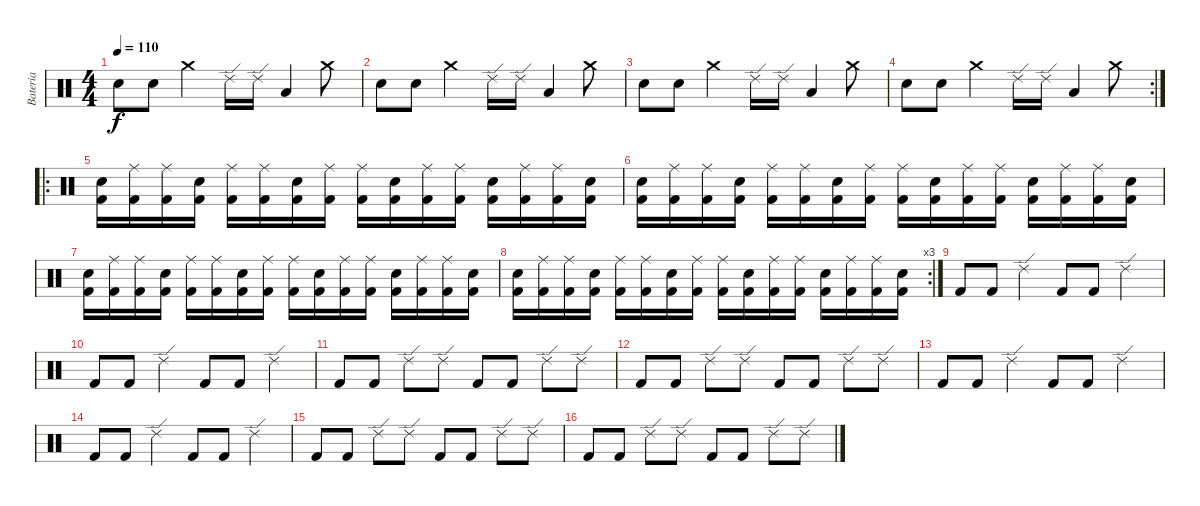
\track ("Bateria" "Bateria") {instrument percussion}
\staff {score}
\articulation defaults
\ts (4 4)
\tempo 110
\clef neutral
\ks c "Electric Snare (hit)".8{dy f} "Electric Snare (hit)".8 "Crash medium (hit)".4 "Ride (edge) 2".16 "Ride (edge) 2".16 "Low Tom (hit)".4 "Crash medium (hit)".8
|
"Electric Snare (hit)".8 "Electric Snare (hit)".8 "Crash medium (hit)".4 "Ride (edge) 2".16 "Ride (edge) 2".16 "Low Tom (hit)".4 "Crash medium (hit)".8 |
"Electric Snare (hit)".8 "Electric Snare (hit)".8 "Crash medium (hit)".4 "Ride (edge) 2".16 "Ride (edge) 2".16 "Low Tom (hit)".4 "Crash medium (hit)".8 |
\rc 2 "Electric Snare (hit)".8 "Electric Snare (hit)".8 "Crash medium (hit)".4 "Ride (edge) 2".16 "Ride (edge) 2".16 "Low Tom (hit)".4 "Crash medium (hit)".8
|
\ro
("Electric Snare (hit)" "Kick (hit) 2").16 ("Ride (middle)" "Kick (hit) 2").16 ("Ride (middle)" "Kick (hit) 2").16 ("Electric Snare (hit)" "Kick (hit) 2").16 ("Ride (middle)" "Kick (hit) 2").16 ("Ride (middle)" "Kick (hit) 2").16 ("Electric Snare (hit)" "Kick (hit) 2").16 ("Ride (middle)" "Kick (hit) 2").16 ("Ride (middle)" "Kick (hit) 2").16 ("Electric Snare (hit)" "Kick (hit) 2").16 ("Ride (middle)" "Kick (hit) 2").16 ("Ride (middle)" "Kick (hit) 2").16 ("Electric Snare (hit)" "Kick (hit) 2").16 ("Ride (middle)" "Kick (hit) 2").16 ("Ride (middle)" "Kick (hit) 2").16 ("Electric Snare (hit)" "Kick (hit) 2").16 |
("Electric Snare (hit)" "Kick (hit) 2").16 ("Ride (middle)" "Kick (hit) 2").16 ("Ride (middle)" "Kick (hit) 2").16 ("Electric Snare (hit)" "Kick (hit) 2").16 ("Ride (middle)" "Kick (hit) 2").16 ("Ride (middle)" "Kick (hit) 2").16 ("Electric Snare (hit)" "Kick (hit) 2").16 ("Ride (middle)" "Kick (hit) 2").16 ("Ride (middle)" "Kick (hit) 2").16 ("Electric Snare (hit)" "Kick (hit) 2").16 ("Ride (middle)" "Kick (hit) 2").16 ("Ride (middle)" "Kick (hit) 2").16 ("Electric Snare (hit)" "Kick (hit) 2").16 ("Ride (middle)" "Kick (hit) 2").16 ("Ride (middle)" "Kick (hit) 2").16 ("Electric Snare (hit)" "Kick (hit) 2").16 |
("Electric Snare (hit)" "Kick (hit) 2").16 ("Ride (middle)" "Kick (hit) 2").16 ("Ride (middle)" "Kick (hit) 2").16 ("Electric Snare (hit)" "Kick (hit) 2").16 ("Ride (middle)" "Kick (hit) 2").16 ("Ride (middle)" "Kick (hit) 2").16 ("Electric Snare (hit)" "Kick (hit) 2").16 ("Ride (middle)" "Kick (hit) 2").16 ("Ride (middle)" "Kick (hit) 2").16 ("Electric Snare (hit)" "Kick (hit) 2").16 ("Ride (middle)" "Kick (hit) 2").16 ("Ride (middle)" "Kick (hit) 2").16 ("Electric Snare (hit)" "Kick (hit) 2").16 ("Ride (middle)" "Kick (hit) 2").16 ("Ride (middle)" "Kick (hit) 2").16 ("Electric Snare (hit)" "Kick (hit) 2").16 |
\rc 3
("Electric Snare (hit)" "Kick (hit) 2").16 ("Ride (middle)" "Kick (hit) 2").16 ("Ride (middle)" "Kick (hit) 2").16 ("Electric Snare (hit)" "Kick (hit) 2").16 ("Ride (middle)" "Kick (hit) 2").16 ("Ride (middle)" "Kick (hit) 2").16 ("Electric Snare (hit)" "Kick (hit) 2").16 ("Ride (middle)" "Kick (hit) 2").16 ("Ride (middle)" "Kick (hit) 2").16 ("Electric Snare (hit)" "Kick (hit) 2").16 ("Ride (middle)" "Kick (hit) 2").16 ("Ride (middle)" "Kick (hit) 2").16 ("Electric Snare (hit)" "Kick (hit) 2").16 ("Ride (middle)" "Kick (hit) 2").16 ("Ride (middle)" "Kick (hit) 2").16 ("Electric Snare (hit)" "Kick (hit) 2").16 |
"Kick (hit) 2".8 "Kick (hit) 2".8 "Ride (edge) 2".4 "Kick (hit) 2".8 "Kick (hit) 2".8 "Ride (edge) 2".4 |
"Kick (hit) 2".8 "Kick (hit) 2".8 "Ride (edge) 2".4 "Kick (hit) 2".8 "Kick (hit) 2".8 "Ride (edge) 2".4 |
"Kick (hit) 2".8 "Kick (hit) 2".8 "Ride (edge) 2".8 "Ride (edge) 2".8 "Kick (hit) 2".8 "Kick (hit) 2".8 "Ride (edge) 2".8 "Ride (edge) 2".8 |
"Kick (hit) 2".8 "Kick (hit) 2".8 "Ride (edge) 2".8 "Ride (edge) 2".8 "Kick (hit) 2".8 "Kick (hit) 2".8 "Ride (edge) 2".8 "Ride (edge) 2".8 |
"Kick (hit) 2".8 "Kick (hit) 2".8 "Ride (edge) 2".4 "Kick (hit) 2".8 "Kick (hit) 2".8 "Ride (edge) 2".4 |
"Kick (hit) 2".8 "Kick (hit) 2".8 "Ride (edge) 2".4 "Kick (hit) 2".8 "Kick (hit) 2".8 "Ride (edge) 2".4 |
"Kick (hit) 2".8 "Kick (hit) 2".8 "Ride (edge) 2".8 "Ride (edge) 2".8 "Kick (hit) 2".8 "Kick (hit) 2".8 "Ride (edge) 2".8 "Ride (edge) 2".8 |
"Kick (hit) 2".8 "Kick (hit) 2".8 "Ride (edge) 2".8 "Ride (edge) 2".8 "Kick (hit) 2".8 "Kick (hit) 2".8 "Ride (edge) 2".8 "Ride (edge) 2".8
